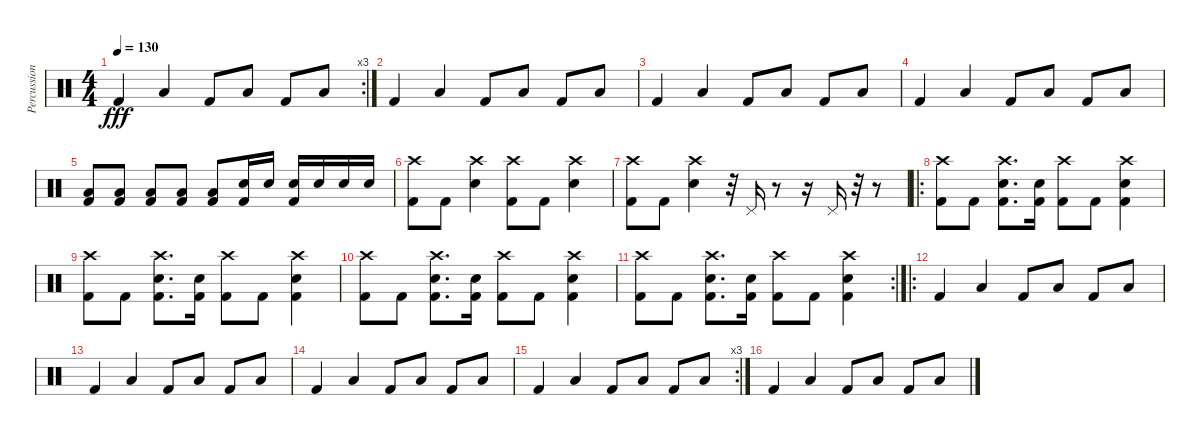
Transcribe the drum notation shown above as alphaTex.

\track ("Percussion" "Percussion") {instrument percussion}
\staff {score}
\articulation defaults
\rc 3
\ts (4 4)
\tempo 130
\clef neutral
\ks c "Kick (hit) 2".4{dy fff} "Low Floor Tom (hit)".4 "Kick (hit) 2".8 "Low Floor Tom (hit)".8 "Kick (hit) 2".8 "Low Floor Tom (hit)".8
|
"Kick (hit) 2".4 "Low Floor Tom (hit)".4 "Kick (hit) 2".8 "Low Floor Tom (hit)".8 "Kick (hit) 2".8 "Low Floor Tom (hit)".8 |
"Kick (hit) 2".4 "Low Floor Tom (hit)".4 "Kick (hit) 2".8 "Low Floor Tom (hit)".8 "Kick (hit) 2".8 "Low Floor Tom (hit)".8 |
"Kick (hit) 2".4 "Low Floor Tom (hit)".4 "Kick (hit) 2".8 "Low Floor Tom (hit)".8 "Kick (hit) 2".8 "Low Floor Tom (hit)".8 |
("Low Floor Tom (hit)" "Kick (hit) 2").8 ("Low Floor Tom (hit)" "Kick (hit) 2").8 ("Low Floor Tom (hit)" "Kick (hit) 2").8 ("Low Floor Tom (hit)" "Kick (hit) 2").8 ("Low Floor Tom (hit)" "Kick (hit) 2").8 ("Electric Snare (hit)" "Kick (hit) 2").16 "Electric Snare (hit)".16 ("Electric Snare (hit)" "Kick (hit) 2").16 "Electric Snare (hit)".16 "Electric Snare (hit)".16 "Electric Snare (hit)".16 |
("Crash high (hit)" "Kick (hit) 2").8 "Kick (hit) 2".8 ("Crash high (hit)" "Electric Snare (hit)").4 ("Crash high (hit)" "Kick (hit) 2").8 "Kick (hit) 2".8 ("Crash high (hit)" "Electric Snare (hit)").4 |
("Crash high (hit)" "Kick (hit) 2").8 "Kick (hit) 2".8 ("Crash high (hit)" "Electric Snare (hit)").4 r.32 "Pedal Hi-Hat (hit)".16 r.8 r.16 "Pedal Hi-Hat (hit)".16 r.32 r.8 |
\ro
("Crash high (hit)" "Kick (hit) 2").8 "Kick (hit) 2".8 ("Crash high (hit)" "Electric Snare (hit)" "Kick (hit) 2").8{d} ("Electric Snare (hit)" "Kick (hit) 2").16 ("Crash high (hit)" "Kick (hit) 2").8 "Kick (hit) 2".8 ("Crash high (hit)" "Electric Snare (hit)" "Kick (hit) 2").4 |
("Crash high (hit)" "Kick (hit) 2").8 "Kick (hit) 2".8 ("Crash high (hit)" "Electric Snare (hit)" "Kick (hit) 2").8{d} ("Electric Snare (hit)" "Kick (hit) 2").16 ("Crash high (hit)" "Kick (hit) 2").8 "Kick (hit) 2".8 ("Crash high (hit)" "Electric Snare (hit)" "Kick (hit) 2").4 |
("Crash high (hit)" "Kick (hit) 2").8 "Kick (hit) 2".8 ("Crash high (hit)" "Electric Snare (hit)" "Kick (hit) 2").8{d} ("Electric Snare (hit)" "Kick (hit) 2").16 ("Crash high (hit)" "Kick (hit) 2").8 "Kick (hit) 2".8 ("Crash high (hit)" "Electric Snare (hit)" "Kick (hit) 2").4 |
\rc 2
("Crash high (hit)" "Kick (hit) 2").8 "Kick (hit) 2".8 ("Crash high (hit)" "Electric Snare (hit)" "Kick (hit) 2").8{d} ("Electric Snare (hit)" "Kick (hit) 2").16 ("Crash high (hit)" "Kick (hit) 2").8 "Kick (hit) 2".8 ("Crash high (hit)" "Electric Snare (hit)" "Kick (hit) 2").4 |
\ro "Kick (hit) 2".4 "Low Floor Tom (hit)".4 "Kick (hit) 2".8 "Low Floor Tom (hit)".8 "Kick (hit) 2".8 "Low Floor Tom (hit)".8
|
"Kick (hit) 2".4 "Low Floor Tom (hit)".4 "Kick (hit) 2".8 "Low Floor Tom (hit)".8 "Kick (hit) 2".8 "Low Floor Tom (hit)".8 |
"Kick (hit) 2".4 "Low Floor Tom (hit)".4 "Kick (hit) 2".8 "Low Floor Tom (hit)".8 "Kick (hit) 2".8 "Low Floor Tom (hit)".8 |
\rc 3 "Kick (hit) 2".4 "Low Floor Tom (hit)".4 "Kick (hit) 2".8 "Low Floor Tom (hit)".8 "Kick (hit) 2".8 "Low Floor Tom (hit)".8
|
"Kick (hit) 2".4 "Low Floor Tom (hit)".4 "Kick (hit) 2".8 "Low Floor Tom (hit)".8 "Kick (hit) 2".8 "Low Floor Tom (hit)".8
